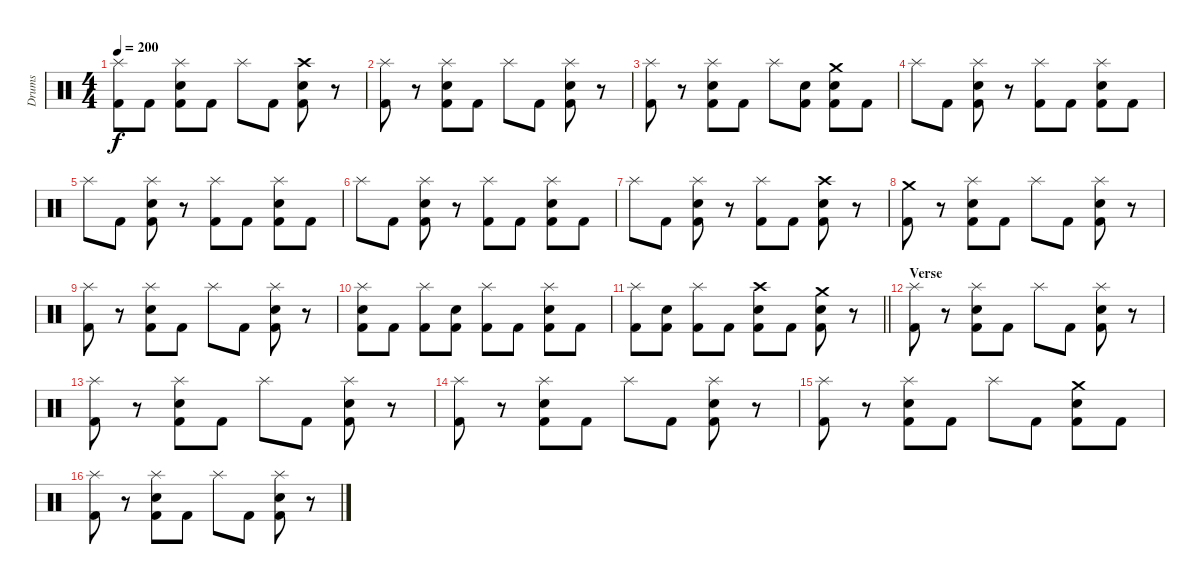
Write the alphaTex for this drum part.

\track ("Drums" "Drums") {instrument percussion}
\staff {score}
\articulation defaults
\ts (4 4)
\tempo 200
\clef neutral
\ks c
("Splash (hit)" "Kick (hit) 2").8{dy f} "Kick (hit) 2".8 ("Splash (hit)" "Snare (hit) 2" "Kick (hit) 2").8 "Kick (hit) 2".8 "Splash (hit)".8 "Kick (hit) 2".8 ("Crash high (hit)" "Snare (hit) 2" "Kick (hit) 2").8 r.8 |
("Splash (hit)" "Kick (hit) 2").8 r.8 ("Splash (hit)" "Snare (hit) 2" "Kick (hit) 2").8 "Kick (hit) 2".8 "Splash (hit)".8 "Kick (hit) 2".8 ("Splash (hit)" "Snare (hit) 2" "Kick (hit) 2").8 r.8 |
("Splash (hit)" "Kick (hit) 2").8 r.8 ("Splash (hit)" "Snare (hit) 2" "Kick (hit) 2").8 "Kick (hit) 2".8 "Splash (hit)".8 ("Snare (hit) 2" "Kick (hit) 2").8 ("Crash medium (hit)" "Snare (hit) 2" "Kick (hit) 2").8 "Kick (hit) 2".8 |
"Splash (hit)".8 "Kick (hit) 2".8 ("Splash (hit)" "Snare (hit) 2" "Kick (hit) 2").8 r.8 ("Splash (hit)" "Kick (hit) 2").8 "Kick (hit) 2".8 ("Splash (hit)" "Snare (hit) 2" "Kick (hit) 2").8 "Kick (hit) 2".8 |
"Splash (hit)".8 "Kick (hit) 2".8 ("Splash (hit)" "Snare (hit) 2" "Kick (hit) 2").8 r.8 ("Splash (hit)" "Kick (hit) 2").8 "Kick (hit) 2".8 ("Splash (hit)" "Snare (hit) 2" "Kick (hit) 2").8 "Kick (hit) 2".8 |
"Splash (hit)".8 "Kick (hit) 2".8 ("Splash (hit)" "Snare (hit) 2" "Kick (hit) 2").8 r.8 ("Splash (hit)" "Kick (hit) 2").8 "Kick (hit) 2".8 ("Splash (hit)" "Snare (hit) 2" "Kick (hit) 2").8 "Kick (hit) 2".8 |
"Splash (hit)".8 "Kick (hit) 2".8 ("Splash (hit)" "Snare (hit) 2" "Kick (hit) 2").8 r.8 ("Splash (hit)" "Kick (hit) 2").8 "Kick (hit) 2".8 ("Crash high (hit)" "Snare (hit) 2" "Kick (hit) 2").8 r.8 |
("Crash medium (hit)" "Kick (hit) 2").8 r.8 ("Splash (hit)" "Snare (hit) 2" "Kick (hit) 2").8 "Kick (hit) 2".8 "Splash (hit)".8 "Kick (hit) 2".8 ("Splash (hit)" "Snare (hit) 2" "Kick (hit) 2").8 r.8 |
("Splash (hit)" "Kick (hit) 2").8 r.8 ("Splash (hit)" "Snare (hit) 2" "Kick (hit) 2").8 "Kick (hit) 2".8 "Splash (hit)".8 "Kick (hit) 2".8 ("Splash (hit)" "Snare (hit) 2" "Kick (hit) 2").8 r.8 |
("Splash (hit)" "Snare (hit) 2" "Kick (hit) 2").8 "Kick (hit) 2".8 ("Splash (hit)" "Kick (hit) 2").8 ("Snare (hit) 2" "Kick (hit) 2").8 ("Splash (hit)" "Kick (hit) 2").8 "Kick (hit) 2".8 ("Splash (hit)" "Snare (hit) 2" "Kick (hit) 2").8 "Kick (hit) 2".8 |
\barLineRight lightlight
("Splash (hit)" "Kick (hit) 2").8 ("Snare (hit) 2" "Kick (hit) 2").8 ("Splash (hit)" "Kick (hit) 2").8 "Kick (hit) 2".8 ("Crash high (hit)" "Snare (hit) 2" "Kick (hit) 2").8 "Kick (hit) 2".8 ("Crash medium (hit)" "Snare (hit) 2" "Kick (hit) 2").8 r.8 |
\section ("" "Verse")
("Splash (hit)" "Kick (hit) 2").8 r.8 ("Splash (hit)" "Snare (hit) 2" "Kick (hit) 2").8 "Kick (hit) 2".8 "Splash (hit)".8 "Kick (hit) 2".8 ("Splash (hit)" "Snare (hit) 2" "Kick (hit) 2").8 r.8 |
("Splash (hit)" "Kick (hit) 2").8 r.8 ("Splash (hit)" "Snare (hit) 2" "Kick (hit) 2").8 "Kick (hit) 2".8 "Splash (hit)".8 "Kick (hit) 2".8 ("Splash (hit)" "Snare (hit) 2" "Kick (hit) 2").8 r.8 |
("Splash (hit)" "Kick (hit) 2").8 r.8 ("Splash (hit)" "Snare (hit) 2" "Kick (hit) 2").8 "Kick (hit) 2".8 "Splash (hit)".8 "Kick (hit) 2".8 ("Splash (hit)" "Snare (hit) 2" "Kick (hit) 2").8 r.8 |
("Splash (hit)" "Kick (hit) 2").8 r.8 ("Splash (hit)" "Snare (hit) 2" "Kick (hit) 2").8 "Kick (hit) 2".8 "Splash (hit)".8 "Kick (hit) 2".8 ("Crash medium (hit)" "Snare (hit) 2" "Kick (hit) 2").8 "Kick (hit) 2".8 |
("Splash (hit)" "Kick (hit) 2").8 r.8 ("Splash (hit)" "Snare (hit) 2" "Kick (hit) 2").8 "Kick (hit) 2".8 "Splash (hit)".8 "Kick (hit) 2".8 ("Splash (hit)" "Snare (hit) 2" "Kick (hit) 2").8 r.8
